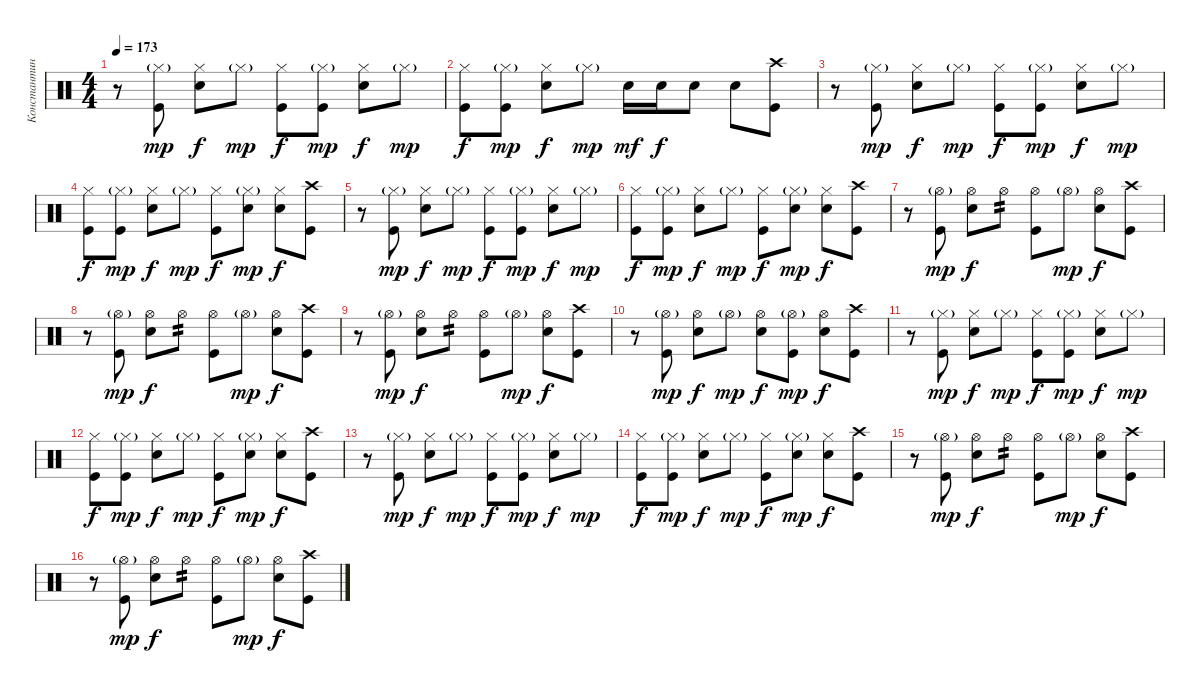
\track ("Константин Дементьев" "Константин") {instrument percussion}
\staff {score}
\articulation defaults
\ts (4 4)
\tempo 173
\clef neutral
\ks c
r.8{dy f} ("Hi-Hat (closed)"{g} "Kick (hit)").8{dy mp} ("Hi-Hat (closed)" "Electric Snare (hit)").8{dy f} "Hi-Hat (closed)"{g}.8{dy mp} ("Hi-Hat (closed)" "Kick (hit)").8{dy f} ("Hi-Hat (closed)"{g} "Kick (hit)").8{dy mp} ("Hi-Hat (closed)" "Electric Snare (hit)").8{dy f} "Hi-Hat (closed)"{g}.8{dy mp} |
("Hi-Hat (closed)" "Kick (hit)").8{dy f} ("Hi-Hat (closed)"{g} "Kick (hit)").8{dy mp} ("Hi-Hat (closed)" "Electric Snare (hit)").8{dy f} "Hi-Hat (closed)"{g}.8{dy mp} "Electric Snare (hit)".16{dy mf} "Electric Snare (hit)".16{dy f} "Electric Snare (hit)".8 "Electric Snare (hit)".8 ("Crash high (hit)" "Kick (hit)").8 |
r.8 ("Hi-Hat (closed)"{g} "Kick (hit)").8{dy mp} ("Hi-Hat (closed)" "Electric Snare (hit)").8{dy f} "Hi-Hat (closed)"{g}.8{dy mp} ("Hi-Hat (closed)" "Kick (hit)").8{dy f} ("Hi-Hat (closed)"{g} "Kick (hit)").8{dy mp} ("Hi-Hat (closed)" "Electric Snare (hit)").8{dy f} "Hi-Hat (closed)"{g}.8{dy mp} |
("Hi-Hat (closed)" "Kick (hit)").8{dy f} ("Hi-Hat (closed)"{g} "Kick (hit)").8{dy mp} ("Hi-Hat (closed)" "Electric Snare (hit)").8{dy f} "Hi-Hat (closed)"{g}.8{dy mp} ("Hi-Hat (closed)" "Kick (hit)").8{dy f} ("Hi-Hat (closed)"{g} "Electric Snare (hit)").8{dy mp} ("Hi-Hat (closed)" "Electric Snare (hit)").8{dy f} ("Crash high (hit)" "Kick (hit)").8 |
r.8 ("Hi-Hat (closed)"{g} "Kick (hit)").8{dy mp} ("Hi-Hat (closed)" "Electric Snare (hit)").8{dy f} "Hi-Hat (closed)"{g}.8{dy mp} ("Hi-Hat (closed)" "Kick (hit)").8{dy f} ("Hi-Hat (closed)"{g} "Kick (hit)").8{dy mp} ("Hi-Hat (closed)" "Electric Snare (hit)").8{dy f} "Hi-Hat (closed)"{g}.8{dy mp} |
("Hi-Hat (closed)" "Kick (hit)").8{dy f} ("Hi-Hat (closed)"{g} "Kick (hit)").8{dy mp} ("Hi-Hat (closed)" "Electric Snare (hit)").8{dy f} "Hi-Hat (closed)"{g}.8{dy mp} ("Hi-Hat (closed)" "Kick (hit)").8{dy f} ("Hi-Hat (closed)"{g} "Electric Snare (hit)").8{dy mp} ("Hi-Hat (closed)" "Electric Snare (hit)").8{dy f} ("Crash high (hit)" "Kick (hit)").8 |
r.8 ("Hi-Hat (open)"{g} "Kick (hit)").8{dy mp} ("Hi-Hat (open)" "Electric Snare (hit)").8{dy f} "Hi-Hat (open)".8{tp 2} ("Hi-Hat (open)" "Kick (hit)").8 "Hi-Hat (open)"{g}.8{dy mp} ("Hi-Hat (open)" "Electric Snare (hit)").8{dy f} ("Crash high (hit)" "Kick (hit)").8 |
r.8 ("Hi-Hat (open)"{g} "Kick (hit)").8{dy mp} ("Hi-Hat (open)" "Electric Snare (hit)").8{dy f} "Hi-Hat (open)".8{tp 2} ("Hi-Hat (open)" "Kick (hit)").8 "Hi-Hat (open)"{g}.8{dy mp} ("Hi-Hat (open)" "Electric Snare (hit)").8{dy f} ("Crash high (hit)" "Kick (hit)").8 |
r.8 ("Hi-Hat (open)"{g} "Kick (hit)").8{dy mp} ("Hi-Hat (open)" "Electric Snare (hit)").8{dy f} "Hi-Hat (open)".8{tp 2} ("Hi-Hat (open)" "Kick (hit)").8 "Hi-Hat (open)"{g}.8{dy mp} ("Hi-Hat (open)" "Electric Snare (hit)").8{dy f} ("Crash high (hit)" "Kick (hit)").8 |
r.8 ("Hi-Hat (open)"{g} "Kick (hit)").8{dy mp} ("Hi-Hat (open)" "Electric Snare (hit)").8{dy f} "Hi-Hat (open)"{g}.8{dy mp} ("Hi-Hat (open)" "Electric Snare (hit)").8{dy f} ("Hi-Hat (open)"{g} "Kick (hit)").8{dy mp} ("Hi-Hat (open)" "Electric Snare (hit)").8{dy f} ("Crash high (hit)" "Kick (hit)").8 |
r.8 ("Hi-Hat (closed)"{g} "Kick (hit)").8{dy mp} ("Hi-Hat (closed)" "Electric Snare (hit)").8{dy f} "Hi-Hat (closed)"{g}.8{dy mp} ("Hi-Hat (closed)" "Kick (hit)").8{dy f} ("Hi-Hat (closed)"{g} "Kick (hit)").8{dy mp} ("Hi-Hat (closed)" "Electric Snare (hit)").8{dy f} "Hi-Hat (closed)"{g}.8{dy mp} |
("Hi-Hat (closed)" "Kick (hit)").8{dy f} ("Hi-Hat (closed)"{g} "Kick (hit)").8{dy mp} ("Hi-Hat (closed)" "Electric Snare (hit)").8{dy f} "Hi-Hat (closed)"{g}.8{dy mp} ("Hi-Hat (closed)" "Kick (hit)").8{dy f} ("Hi-Hat (closed)"{g} "Electric Snare (hit)").8{dy mp} ("Hi-Hat (closed)" "Electric Snare (hit)").8{dy f} ("Crash high (hit)" "Kick (hit)").8 |
r.8 ("Hi-Hat (closed)"{g} "Kick (hit)").8{dy mp} ("Hi-Hat (closed)" "Electric Snare (hit)").8{dy f} "Hi-Hat (closed)"{g}.8{dy mp} ("Hi-Hat (closed)" "Kick (hit)").8{dy f} ("Hi-Hat (closed)"{g} "Kick (hit)").8{dy mp} ("Hi-Hat (closed)" "Electric Snare (hit)").8{dy f} "Hi-Hat (closed)"{g}.8{dy mp} |
("Hi-Hat (closed)" "Kick (hit)").8{dy f} ("Hi-Hat (closed)"{g} "Kick (hit)").8{dy mp} ("Hi-Hat (closed)" "Electric Snare (hit)").8{dy f} "Hi-Hat (closed)"{g}.8{dy mp} ("Hi-Hat (closed)" "Kick (hit)").8{dy f} ("Hi-Hat (closed)"{g} "Electric Snare (hit)").8{dy mp} ("Hi-Hat (closed)" "Electric Snare (hit)").8{dy f} ("Crash high (hit)" "Kick (hit)").8 |
r.8 ("Hi-Hat (open)"{g} "Kick (hit)").8{dy mp} ("Hi-Hat (open)" "Electric Snare (hit)").8{dy f} "Hi-Hat (open)".8{tp 2} ("Hi-Hat (open)" "Kick (hit)").8 "Hi-Hat (open)"{g}.8{dy mp} ("Hi-Hat (open)" "Electric Snare (hit)").8{dy f} ("Crash high (hit)" "Kick (hit)").8 |
r.8 ("Hi-Hat (open)"{g} "Kick (hit)").8{dy mp} ("Hi-Hat (open)" "Electric Snare (hit)").8{dy f} "Hi-Hat (open)".8{tp 2} ("Hi-Hat (open)" "Kick (hit)").8 "Hi-Hat (open)"{g}.8{dy mp} ("Hi-Hat (open)" "Electric Snare (hit)").8{dy f} ("Crash high (hit)" "Kick (hit)").8
